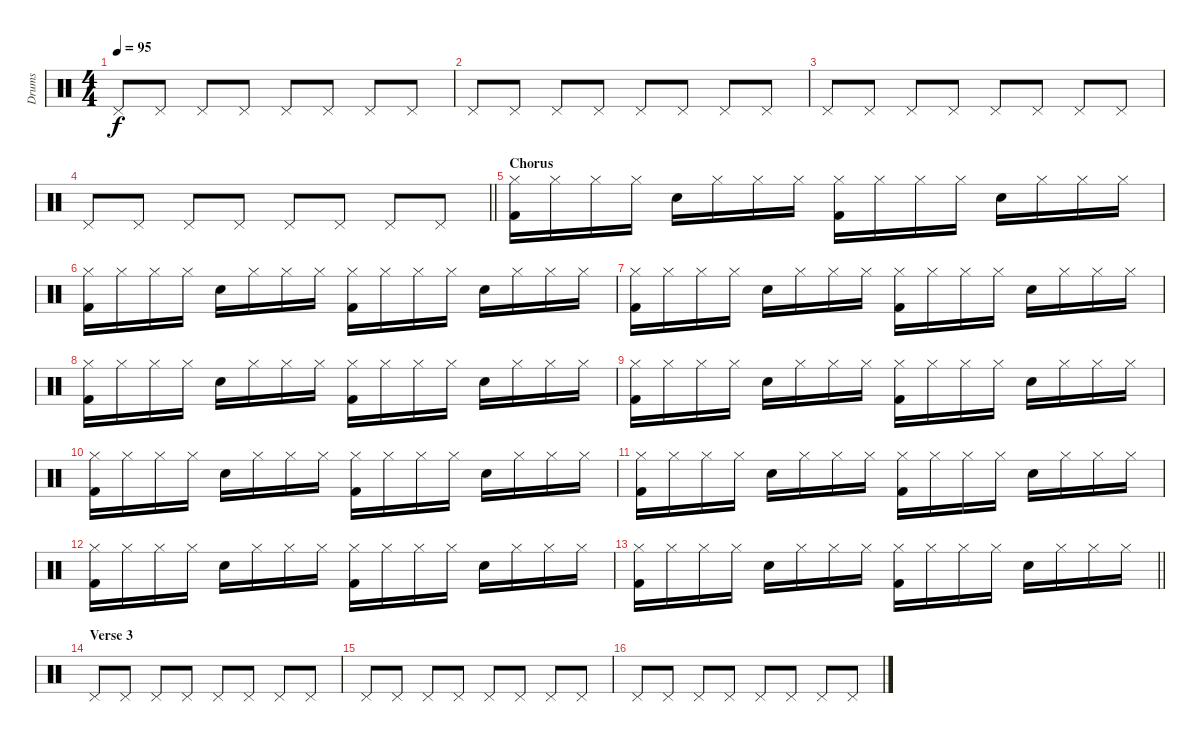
\track ("Drums" "Drums") {instrument percussion}
\staff {score}
\articulation defaults
\ts (4 4)
\tempo 95
\clef neutral
\ks c "Pedal Hi-Hat (hit)".8{dy f} "Pedal Hi-Hat (hit)".8 "Pedal Hi-Hat (hit)".8 "Pedal Hi-Hat (hit)".8 "Pedal Hi-Hat (hit)".8 "Pedal Hi-Hat (hit)".8 "Pedal Hi-Hat (hit)".8 "Pedal Hi-Hat (hit)".8
|
"Pedal Hi-Hat (hit)".8 "Pedal Hi-Hat (hit)".8 "Pedal Hi-Hat (hit)".8 "Pedal Hi-Hat (hit)".8 "Pedal Hi-Hat (hit)".8 "Pedal Hi-Hat (hit)".8 "Pedal Hi-Hat (hit)".8 "Pedal Hi-Hat (hit)".8 |
"Pedal Hi-Hat (hit)".8 "Pedal Hi-Hat (hit)".8 "Pedal Hi-Hat (hit)".8 "Pedal Hi-Hat (hit)".8 "Pedal Hi-Hat (hit)".8 "Pedal Hi-Hat (hit)".8 "Pedal Hi-Hat (hit)".8 "Pedal Hi-Hat (hit)".8 |
\barLineRight lightlight "Pedal Hi-Hat (hit)".8 "Pedal Hi-Hat (hit)".8 "Pedal Hi-Hat (hit)".8 "Pedal Hi-Hat (hit)".8 "Pedal Hi-Hat (hit)".8 "Pedal Hi-Hat (hit)".8 "Pedal Hi-Hat (hit)".8 "Pedal Hi-Hat (hit)".8
|
\section ("" "Chorus")
("Hi-Hat (closed)" "Kick (hit) 2").16 "Hi-Hat (closed)".16 "Hi-Hat (closed)".16 "Hi-Hat (closed)".16 "Snare (hit) 2".16 "Hi-Hat (closed)".16 "Hi-Hat (closed)".16 "Hi-Hat (closed)".16 ("Hi-Hat (closed)" "Kick (hit) 2").16 "Hi-Hat (closed)".16 "Hi-Hat (closed)".16 "Hi-Hat (closed)".16 "Snare (hit) 2".16 "Hi-Hat (closed)".16 "Hi-Hat (closed)".16 "Hi-Hat (closed)".16 |
("Hi-Hat (closed)" "Kick (hit) 2").16 "Hi-Hat (closed)".16 "Hi-Hat (closed)".16 "Hi-Hat (closed)".16 "Snare (hit) 2".16 "Hi-Hat (closed)".16 "Hi-Hat (closed)".16 "Hi-Hat (closed)".16 ("Hi-Hat (closed)" "Kick (hit) 2").16 "Hi-Hat (closed)".16 "Hi-Hat (closed)".16 "Hi-Hat (closed)".16 "Snare (hit) 2".16 "Hi-Hat (closed)".16 "Hi-Hat (closed)".16 "Hi-Hat (closed)".16 |
("Hi-Hat (closed)" "Kick (hit) 2").16 "Hi-Hat (closed)".16 "Hi-Hat (closed)".16 "Hi-Hat (closed)".16 "Snare (hit) 2".16 "Hi-Hat (closed)".16 "Hi-Hat (closed)".16 "Hi-Hat (closed)".16 ("Hi-Hat (closed)" "Kick (hit) 2").16 "Hi-Hat (closed)".16 "Hi-Hat (closed)".16 "Hi-Hat (closed)".16 "Snare (hit) 2".16 "Hi-Hat (closed)".16 "Hi-Hat (closed)".16 "Hi-Hat (closed)".16 |
("Hi-Hat (closed)" "Kick (hit) 2").16 "Hi-Hat (closed)".16 "Hi-Hat (closed)".16 "Hi-Hat (closed)".16 "Snare (hit) 2".16 "Hi-Hat (closed)".16 "Hi-Hat (closed)".16 "Hi-Hat (closed)".16 ("Hi-Hat (closed)" "Kick (hit) 2").16 "Hi-Hat (closed)".16 "Hi-Hat (closed)".16 "Hi-Hat (closed)".16 "Snare (hit) 2".16 "Hi-Hat (closed)".16 "Hi-Hat (closed)".16 "Hi-Hat (closed)".16 |
("Hi-Hat (closed)" "Kick (hit) 2").16 "Hi-Hat (closed)".16 "Hi-Hat (closed)".16 "Hi-Hat (closed)".16 "Snare (hit) 2".16 "Hi-Hat (closed)".16 "Hi-Hat (closed)".16 "Hi-Hat (closed)".16 ("Hi-Hat (closed)" "Kick (hit) 2").16 "Hi-Hat (closed)".16 "Hi-Hat (closed)".16 "Hi-Hat (closed)".16 "Snare (hit) 2".16 "Hi-Hat (closed)".16 "Hi-Hat (closed)".16 "Hi-Hat (closed)".16 |
("Hi-Hat (closed)" "Kick (hit) 2").16 "Hi-Hat (closed)".16 "Hi-Hat (closed)".16 "Hi-Hat (closed)".16 "Snare (hit) 2".16 "Hi-Hat (closed)".16 "Hi-Hat (closed)".16 "Hi-Hat (closed)".16 ("Hi-Hat (closed)" "Kick (hit) 2").16 "Hi-Hat (closed)".16 "Hi-Hat (closed)".16 "Hi-Hat (closed)".16 "Snare (hit) 2".16 "Hi-Hat (closed)".16 "Hi-Hat (closed)".16 "Hi-Hat (closed)".16 |
("Hi-Hat (closed)" "Kick (hit) 2").16 "Hi-Hat (closed)".16 "Hi-Hat (closed)".16 "Hi-Hat (closed)".16 "Snare (hit) 2".16 "Hi-Hat (closed)".16 "Hi-Hat (closed)".16 "Hi-Hat (closed)".16 ("Hi-Hat (closed)" "Kick (hit) 2").16 "Hi-Hat (closed)".16 "Hi-Hat (closed)".16 "Hi-Hat (closed)".16 "Snare (hit) 2".16 "Hi-Hat (closed)".16 "Hi-Hat (closed)".16 "Hi-Hat (closed)".16 |
("Hi-Hat (closed)" "Kick (hit) 2").16 "Hi-Hat (closed)".16 "Hi-Hat (closed)".16 "Hi-Hat (closed)".16 "Snare (hit) 2".16 "Hi-Hat (closed)".16 "Hi-Hat (closed)".16 "Hi-Hat (closed)".16 ("Hi-Hat (closed)" "Kick (hit) 2").16 "Hi-Hat (closed)".16 "Hi-Hat (closed)".16 "Hi-Hat (closed)".16 "Snare (hit) 2".16 "Hi-Hat (closed)".16 "Hi-Hat (closed)".16 "Hi-Hat (closed)".16 |
\barLineRight lightlight
("Hi-Hat (closed)" "Kick (hit) 2").16 "Hi-Hat (closed)".16 "Hi-Hat (closed)".16 "Hi-Hat (closed)".16 "Snare (hit) 2".16 "Hi-Hat (closed)".16 "Hi-Hat (closed)".16 "Hi-Hat (closed)".16 ("Hi-Hat (closed)" "Kick (hit) 2").16 "Hi-Hat (closed)".16 "Hi-Hat (closed)".16 "Hi-Hat (closed)".16 "Snare (hit) 2".16 "Hi-Hat (closed)".16 "Hi-Hat (closed)".16 "Hi-Hat (closed)".16 |
\section ("" "Verse 3")
"Pedal Hi-Hat (hit)".8 "Pedal Hi-Hat (hit)".8 "Pedal Hi-Hat (hit)".8 "Pedal Hi-Hat (hit)".8 "Pedal Hi-Hat (hit)".8 "Pedal Hi-Hat (hit)".8 "Pedal Hi-Hat (hit)".8 "Pedal Hi-Hat (hit)".8 |
"Pedal Hi-Hat (hit)".8 "Pedal Hi-Hat (hit)".8 "Pedal Hi-Hat (hit)".8 "Pedal Hi-Hat (hit)".8 "Pedal Hi-Hat (hit)".8 "Pedal Hi-Hat (hit)".8 "Pedal Hi-Hat (hit)".8 "Pedal Hi-Hat (hit)".8 |
"Pedal Hi-Hat (hit)".8 "Pedal Hi-Hat (hit)".8 "Pedal Hi-Hat (hit)".8 "Pedal Hi-Hat (hit)".8 "Pedal Hi-Hat (hit)".8 "Pedal Hi-Hat (hit)".8 "Pedal Hi-Hat (hit)".8 "Pedal Hi-Hat (hit)".8
